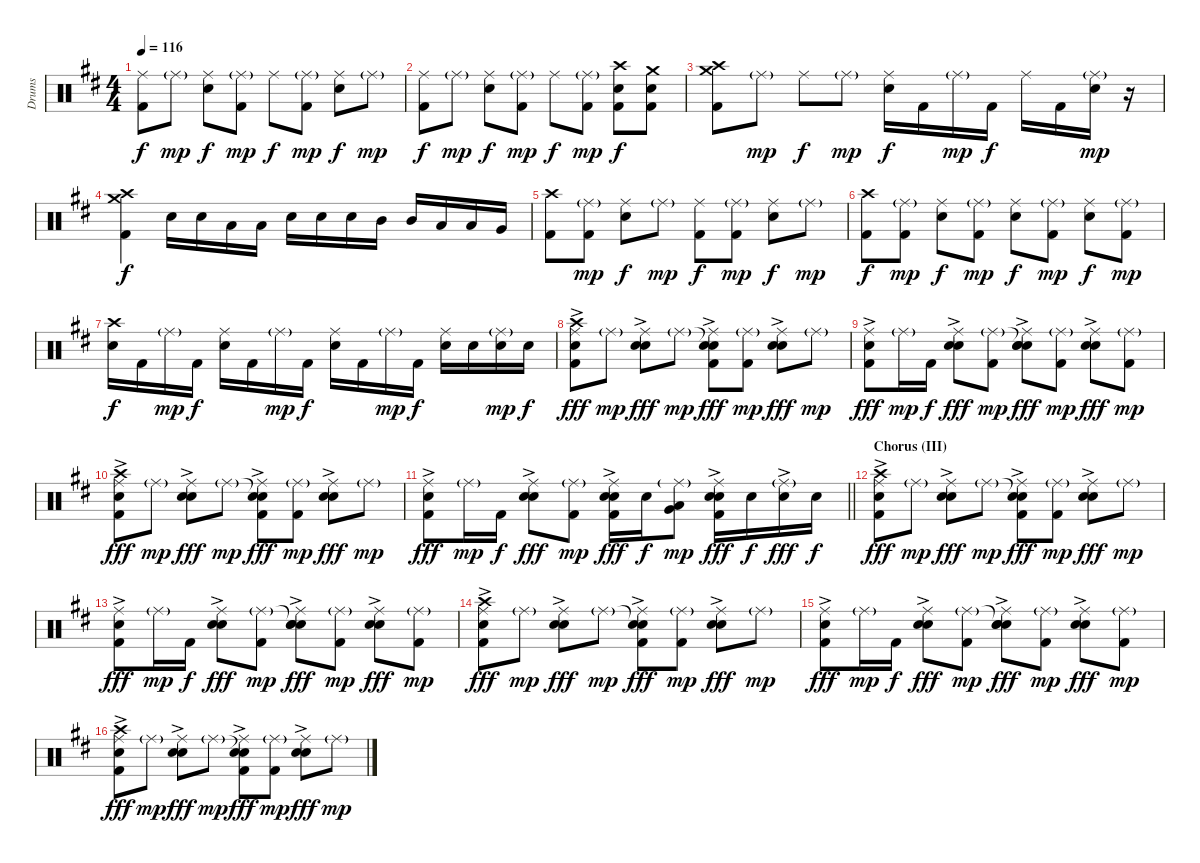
\track ("Drums" "Drums") {instrument percussion}
\staff {score}
\articulation defaults
\ts (4 4)
\tempo 116
\clef neutral
\ks d
("Ride (middle)" "Kick (hit) 2").8{dy f} "Ride (middle)"{g}.8{dy mp} ("Ride (middle)" "Snare (hit) 2").8{dy f} ("Ride (middle)"{g} "Kick (hit) 2").8{dy mp} "Ride (middle)".8{dy f} ("Ride (middle)"{g} "Kick (hit) 2").8{dy mp} ("Ride (middle)" "Snare (hit) 2").8{dy f} "Ride (middle)"{g}.8{dy mp} |
("Ride (middle)" "Kick (hit) 2").8{dy f} "Ride (middle)"{g}.8{dy mp} ("Ride (middle)" "Snare (hit) 2").8{dy f} ("Ride (middle)"{g} "Kick (hit) 2").8{dy mp} "Ride (middle)".8{dy f} ("Ride (middle)"{g} "Kick (hit) 2").8{dy mp} ("Crash high (hit)" "Snare (hit) 2" "Kick (hit) 2").8{dy f} ("Crash medium (hit)" "Snare (hit) 2" "Kick (hit) 2").8 |
("Crash high (hit)" "Crash medium (hit)" "Kick (hit) 2").8 "Ride (middle)"{g}.8{dy mp} "Ride (middle)".8{dy f} "Ride (middle)"{g}.8{dy mp} ("Ride (middle)" "Snare (hit) 2").16{dy f} "Kick (hit) 2".16 "Ride (middle)"{g}.16{dy mp} "Kick (hit) 2".16{dy f} "Ride (middle)".16 "Kick (hit) 2".16 ("Ride (middle)"{g} "Snare (hit) 2").16{dy mp} r.16 |
("Crash high (hit)" "Crash medium (hit)" "Kick (hit) 2").4{dy f} "Snare (hit) 2".16 "Snare (hit) 2".16 "Low Tom (hit)".16 "Low Tom (hit)".16 "Snare (hit) 2".16 "Snare (hit) 2".16 "Snare (hit) 2".16 "Mid Tom (hit)".16 "Mid Tom (hit)".16 "Low Tom (hit)".16 "Low Tom (hit)".16 "Very Low Tom (hit)".16 |
("Crash high (hit)" "Kick (hit) 2").8 ("Ride (middle)"{g} "Kick (hit) 2").8{dy mp} ("Ride (middle)" "Snare (hit) 2").8{dy f} "Ride (middle)"{g}.8{dy mp} ("Ride (middle)" "Kick (hit) 2").8{dy f} ("Ride (middle)"{g} "Kick (hit) 2").8{dy mp} ("Ride (middle)" "Snare (hit) 2").8{dy f} "Ride (middle)"{g}.8{dy mp} |
("Crash high (hit)" "Kick (hit) 2").8{dy f} ("Ride (middle)"{g} "Kick (hit) 2").8{dy mp} ("Ride (middle)" "Snare (hit) 2").8{dy f} ("Ride (middle)"{g} "Kick (hit) 2").8{dy mp} ("Ride (middle)" "Snare (hit) 2").8{dy f} ("Ride (middle)"{g} "Kick (hit) 2").8{dy mp} ("Ride (middle)" "Snare (hit) 2").8{dy f} ("Ride (middle)"{g} "Kick (hit) 2").8{dy mp} |
("Crash high (hit)" "Snare (hit) 2").16{dy f} "Kick (hit) 2".16 "Ride (middle)"{g}.16{dy mp} "Kick (hit) 2".16{dy f} ("Ride (middle)" "Snare (hit) 2").16 "Kick (hit) 2".16 "Ride (middle)"{g}.16{dy mp} "Kick (hit) 2".16{dy f} ("Ride (middle)" "Snare (hit) 2").16 "Kick (hit) 2".16 "Ride (middle)"{g}.16{dy mp} "Kick (hit) 2".16{dy f} ("Ride (middle)" "Snare (hit) 2").16 "Snare (hit) 2".16 ("Ride (middle)"{g} "Snare (hit) 2").16{dy mp} "Snare (hit) 2".16{dy f} |
("Crash high (hit)" "Ride (middle)" "Hand Clap (hit)"{ac} "Kick (hit) 2").8{dy fff} "Ride (middle)"{g}.8{dy mp} ("Ride (middle)" "Hand Clap (hit)"{ac} "Snare (hit) 2").8{dy fff} "Ride (middle)"{g}.8{dy mp} ("Snare (hit)"{t} "Ride (middle)" "Hand Clap (hit)"{ac} "Kick (hit) 2").8{dy fff} ("Ride (middle)"{g} "Kick (hit) 2").8{dy mp} ("Ride (middle)" "Hand Clap (hit)"{ac} "Snare (hit) 2").8{dy fff} "Ride (middle)"{g}.8{dy mp} |
("Ride (middle)" "Hand Clap (hit)"{ac} "Kick (hit) 2").8{dy fff} "Ride (middle)"{g}.16{dy mp} "Kick (hit) 2".16{dy f} ("Ride (middle)" "Hand Clap (hit)"{ac} "Snare (hit) 2").8{dy fff} ("Ride (middle)"{g} "Kick (hit) 2").8{dy mp} ("Snare (hit)"{t} "Ride (middle)" "Hand Clap (hit)"{ac} "Snare (hit) 2").8{dy fff} ("Ride (middle)"{g} "Kick (hit) 2").8{dy mp} ("Ride (middle)" "Hand Clap (hit)"{ac} "Snare (hit) 2").8{dy fff} ("Ride (middle)"{g} "Kick (hit) 2").8{dy mp} |
("Crash high (hit)" "Ride (middle)" "Hand Clap (hit)"{ac} "Kick (hit) 2").8{dy fff} "Ride (middle)"{g}.8{dy mp} ("Ride (middle)" "Hand Clap (hit)"{ac} "Snare (hit) 2").8{dy fff} "Ride (middle)"{g}.8{dy mp} ("Snare (hit)"{t} "Ride (middle)" "Hand Clap (hit)"{ac} "Kick (hit) 2").8{dy fff} ("Ride (middle)"{g} "Kick (hit) 2").8{dy mp} ("Ride (middle)" "Hand Clap (hit)"{ac} "Snare (hit) 2").8{dy fff} "Ride (middle)"{g}.8{dy mp} |
\barLineRight lightlight
("Ride (middle)" "Hand Clap (hit)"{ac} "Kick (hit) 2").8{dy fff} "Ride (middle)"{g}.16{dy mp} "Kick (hit) 2".16{dy f} ("Ride (middle)" "Hand Clap (hit)"{ac} "Snare (hit) 2").8{dy fff} ("Ride (middle)"{g} "Kick (hit) 2").8{dy mp} ("Ride (middle)" "Hand Clap (hit)"{ac} "Snare (hit) 2" "Kick (hit) 2").16{dy fff} "Snare (hit) 2".16{dy f} ("Ride (middle)"{g} "Low Tom (hit)" "Very Low Tom (hit)").8{dy mp} ("Ride (middle)" "Hand Clap (hit)"{ac} "Snare (hit) 2"{ac} "Kick (hit) 2").16{dy fff} "Snare (hit) 2".16{dy f} ("Ride (middle)"{g} "Snare (hit) 2"{ac}).16{dy fff} "Snare (hit) 2".16{dy f} |
\section ("" "Chorus (III)")
("Crash high (hit)" "Ride (middle)" "Hand Clap (hit)"{ac} "Kick (hit) 2").8{dy fff} "Ride (middle)"{g}.8{dy mp} ("Ride (middle)" "Hand Clap (hit)"{ac} "Snare (hit) 2").8{dy fff} "Ride (middle)"{g}.8{dy mp} ("Snare (hit)"{t} "Ride (middle)" "Hand Clap (hit)"{ac} "Kick (hit) 2").8{dy fff} ("Ride (middle)"{g} "Kick (hit) 2").8{dy mp} ("Ride (middle)" "Hand Clap (hit)"{ac} "Snare (hit) 2").8{dy fff} "Ride (middle)"{g}.8{dy mp} |
("Ride (middle)" "Hand Clap (hit)"{ac} "Kick (hit) 2").8{dy fff} "Ride (middle)"{g}.16{dy mp} "Kick (hit) 2".16{dy f} ("Ride (middle)" "Hand Clap (hit)"{ac} "Snare (hit) 2").8{dy fff} ("Ride (middle)"{g} "Kick (hit) 2").8{dy mp} ("Snare (hit)"{t} "Ride (middle)" "Hand Clap (hit)"{ac} "Snare (hit) 2").8{dy fff} ("Ride (middle)"{g} "Kick (hit) 2").8{dy mp} ("Ride (middle)" "Hand Clap (hit)"{ac} "Snare (hit) 2").8{dy fff} ("Ride (middle)"{g} "Kick (hit) 2").8{dy mp} |
("Crash high (hit)" "Ride (middle)" "Hand Clap (hit)"{ac} "Kick (hit) 2").8{dy fff} "Ride (middle)"{g}.8{dy mp} ("Ride (middle)" "Hand Clap (hit)"{ac} "Snare (hit) 2").8{dy fff} "Ride (middle)"{g}.8{dy mp} ("Snare (hit)"{t} "Ride (middle)" "Hand Clap (hit)"{ac} "Kick (hit) 2").8{dy fff} ("Ride (middle)"{g} "Kick (hit) 2").8{dy mp} ("Ride (middle)" "Hand Clap (hit)"{ac} "Snare (hit) 2").8{dy fff} "Ride (middle)"{g}.8{dy mp} |
("Ride (middle)" "Hand Clap (hit)"{ac} "Kick (hit) 2").8{dy fff} "Ride (middle)"{g}.16{dy mp} "Kick (hit) 2".16{dy f} ("Ride (middle)" "Hand Clap (hit)"{ac} "Snare (hit) 2").8{dy fff} ("Ride (middle)"{g} "Kick (hit) 2").8{dy mp} ("Snare (hit)"{t} "Ride (middle)" "Hand Clap (hit)"{ac} "Snare (hit) 2").8{dy fff} ("Ride (middle)"{g} "Kick (hit) 2").8{dy mp} ("Ride (middle)" "Hand Clap (hit)"{ac} "Snare (hit) 2").8{dy fff} ("Ride (middle)"{g} "Kick (hit) 2").8{dy mp} |
("Crash high (hit)" "Ride (middle)" "Hand Clap (hit)"{ac} "Kick (hit) 2").8{dy fff} "Ride (middle)"{g}.8{dy mp} ("Ride (middle)" "Hand Clap (hit)"{ac} "Snare (hit) 2").8{dy fff} "Ride (middle)"{g}.8{dy mp} ("Snare (hit)"{t} "Ride (middle)" "Hand Clap (hit)"{ac} "Kick (hit) 2").8{dy fff} ("Ride (middle)"{g} "Kick (hit) 2").8{dy mp} ("Ride (middle)" "Hand Clap (hit)"{ac} "Snare (hit) 2").8{dy fff} "Ride (middle)"{g}.8{dy mp}
